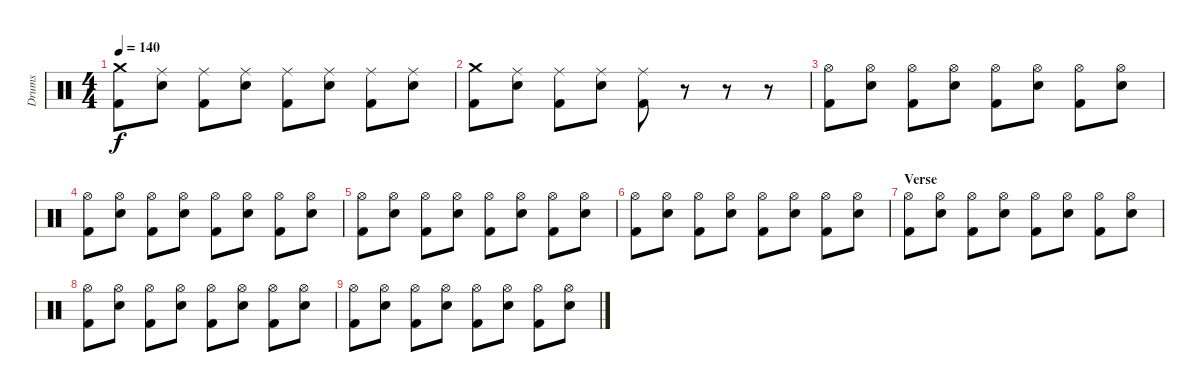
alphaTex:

\track ("Drums" "Drums") {instrument percussion}
\staff {score}
\articulation defaults
\ts (4 4)
\tempo 140
\clef neutral
\ks c
("Crash medium (hit)" "Kick (hit) 2").8{dy f} ("Ride (middle)" "Snare (hit) 2").8 ("Ride (middle)" "Kick (hit) 2").8 ("Ride (middle)" "Snare (hit) 2").8 ("Ride (middle)" "Kick (hit) 2").8 ("Ride (middle)" "Snare (hit) 2").8 ("Ride (middle)" "Kick (hit) 2").8 ("Ride (middle)" "Snare (hit) 2").8 |
("Crash medium (hit)" "Kick (hit) 2").8 ("Ride (middle)" "Snare (hit) 2").8 ("Ride (middle)" "Kick (hit) 2").8 ("Ride (middle)" "Snare (hit) 2").8 ("Ride (middle)" "Kick (hit) 2").8 r.8 r.8 r.8 |
\section ("" "")
("Hi-Hat (open)" "Kick (hit) 2").8 ("Hi-Hat (open)" "Snare (hit) 2").8 ("Hi-Hat (open)" "Kick (hit) 2").8 ("Hi-Hat (open)" "Snare (hit) 2").8 ("Hi-Hat (open)" "Kick (hit) 2").8 ("Hi-Hat (open)" "Snare (hit) 2").8 ("Hi-Hat (open)" "Kick (hit) 2").8 ("Hi-Hat (open)" "Snare (hit) 2").8 |
("Hi-Hat (open)" "Kick (hit) 2").8 ("Hi-Hat (open)" "Snare (hit) 2").8 ("Hi-Hat (open)" "Kick (hit) 2").8 ("Hi-Hat (open)" "Snare (hit) 2").8 ("Hi-Hat (open)" "Kick (hit) 2").8 ("Hi-Hat (open)" "Snare (hit) 2").8 ("Hi-Hat (open)" "Kick (hit) 2").8 ("Hi-Hat (open)" "Snare (hit) 2").8 |
("Hi-Hat (open)" "Kick (hit) 2").8 ("Hi-Hat (open)" "Snare (hit) 2").8 ("Hi-Hat (open)" "Kick (hit) 2").8 ("Hi-Hat (open)" "Snare (hit) 2").8 ("Hi-Hat (open)" "Kick (hit) 2").8 ("Hi-Hat (open)" "Snare (hit) 2").8 ("Hi-Hat (open)" "Kick (hit) 2").8 ("Hi-Hat (open)" "Snare (hit) 2").8 |
("Hi-Hat (open)" "Kick (hit) 2").8 ("Hi-Hat (open)" "Snare (hit) 2").8 ("Hi-Hat (open)" "Kick (hit) 2").8 ("Hi-Hat (open)" "Snare (hit) 2").8 ("Hi-Hat (open)" "Kick (hit) 2").8 ("Hi-Hat (open)" "Snare (hit) 2").8 ("Hi-Hat (open)" "Kick (hit) 2").8 ("Hi-Hat (open)" "Snare (hit) 2").8 |
\section ("" "Verse")
("Hi-Hat (open)" "Kick (hit) 2").8 ("Hi-Hat (open)" "Snare (hit) 2").8 ("Hi-Hat (open)" "Kick (hit) 2").8 ("Hi-Hat (open)" "Snare (hit) 2").8 ("Hi-Hat (open)" "Kick (hit) 2").8 ("Hi-Hat (open)" "Snare (hit) 2").8 ("Hi-Hat (open)" "Kick (hit) 2").8 ("Hi-Hat (open)" "Snare (hit) 2").8 |
("Hi-Hat (open)" "Kick (hit) 2").8 ("Hi-Hat (open)" "Snare (hit) 2").8 ("Hi-Hat (open)" "Kick (hit) 2").8 ("Hi-Hat (open)" "Snare (hit) 2").8 ("Hi-Hat (open)" "Kick (hit) 2").8 ("Hi-Hat (open)" "Snare (hit) 2").8 ("Hi-Hat (open)" "Kick (hit) 2").8 ("Hi-Hat (open)" "Snare (hit) 2").8 |
("Hi-Hat (open)" "Kick (hit) 2").8 ("Hi-Hat (open)" "Snare (hit) 2").8 ("Hi-Hat (open)" "Kick (hit) 2").8 ("Hi-Hat (open)" "Snare (hit) 2").8 ("Hi-Hat (open)" "Kick (hit) 2").8 ("Hi-Hat (open)" "Snare (hit) 2").8 ("Hi-Hat (open)" "Kick (hit) 2").8 ("Hi-Hat (open)" "Snare (hit) 2").8
